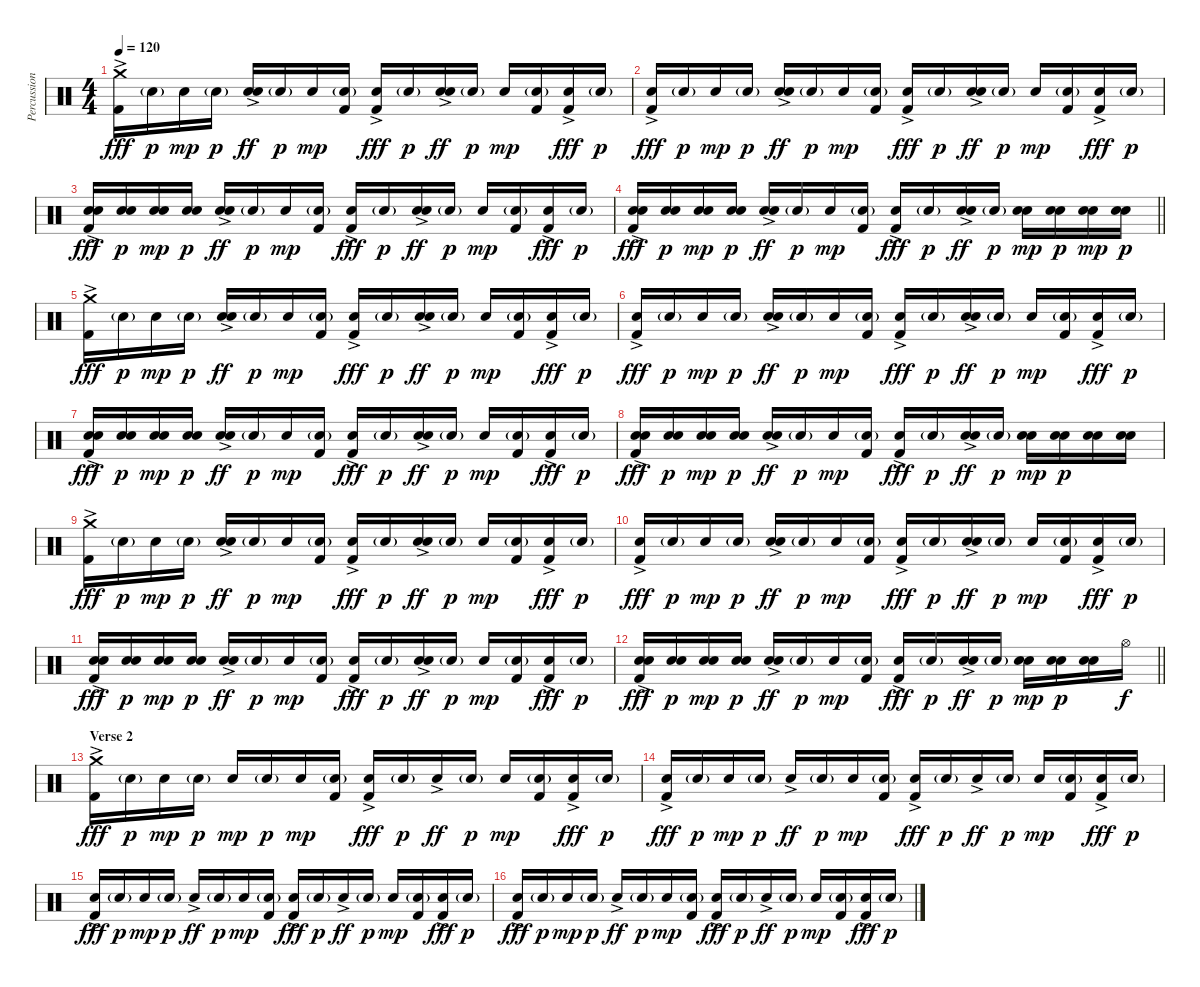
\track ("Percussion" "Percussion") {instrument percussion}
\staff {score}
\articulation defaults
\ts (4 4)
\tempo 120
\clef neutral
\ks c
("Crash medium (hit)" "Kick (hit) 2"{ac}).16{dy fff} "Electric Snare (hit)"{g}.16{dy p} "Electric Snare (hit)".16{dy mp} "Electric Snare (hit)"{g}.16{dy p} ("Electric Snare (hit)"{ac} "Snare (hit) 2").16{dy ff} "Electric Snare (hit)"{g}.16{dy p} "Electric Snare (hit)".16{dy mp} ("Electric Snare (hit)"{g} "Kick (hit) 2").16 ("Electric Snare (hit)" "Kick (hit) 2"{ac}).16{dy fff} "Electric Snare (hit)"{g}.16{dy p} ("Electric Snare (hit)"{ac} "Snare (hit) 2").16{dy ff} "Electric Snare (hit)"{g}.16{dy p} "Electric Snare (hit)".16{dy mp} ("Electric Snare (hit)"{g} "Kick (hit) 2").16 ("Electric Snare (hit)" "Kick (hit) 2"{ac}).16{dy fff} "Electric Snare (hit)"{g}.16{dy p} |
("Electric Snare (hit)" "Kick (hit) 2"{ac}).16{dy fff} "Electric Snare (hit)"{g}.16{dy p} "Electric Snare (hit)".16{dy mp} "Electric Snare (hit)"{g}.16{dy p} ("Electric Snare (hit)"{ac} "Snare (hit) 2").16{dy ff} "Electric Snare (hit)"{g}.16{dy p} "Electric Snare (hit)".16{dy mp} ("Electric Snare (hit)"{g} "Kick (hit) 2").16 ("Electric Snare (hit)" "Kick (hit) 2"{ac}).16{dy fff} "Electric Snare (hit)"{g}.16{dy p} ("Electric Snare (hit)"{ac} "Snare (hit) 2").16{dy ff} "Electric Snare (hit)"{g}.16{dy p} "Electric Snare (hit)".16{dy mp} ("Electric Snare (hit)"{g} "Kick (hit) 2").16 ("Electric Snare (hit)" "Kick (hit) 2"{ac}).16{dy fff} "Electric Snare (hit)"{g}.16{dy p} |
("Electric Snare (hit)" "Snare (hit) 2" "Kick (hit) 2"{ac}).16{dy fff} ("Electric Snare (hit)" "Snare (hit) 2").16{dy p} ("Electric Snare (hit)" "Snare (hit) 2").16{dy mp} ("Electric Snare (hit)" "Snare (hit) 2").16{dy p} ("Electric Snare (hit)"{ac} "Snare (hit) 2").16{dy ff} "Electric Snare (hit)"{g}.16{dy p} "Electric Snare (hit)".16{dy mp} ("Electric Snare (hit)"{g} "Kick (hit) 2").16 ("Electric Snare (hit)" "Kick (hit) 2"{ac}).16{dy fff} "Electric Snare (hit)"{g}.16{dy p} ("Electric Snare (hit)"{ac} "Snare (hit) 2").16{dy ff} "Electric Snare (hit)"{g}.16{dy p} "Electric Snare (hit)".16{dy mp} ("Electric Snare (hit)"{g} "Kick (hit) 2").16 ("Electric Snare (hit)" "Kick (hit) 2"{ac}).16{dy fff} "Electric Snare (hit)"{g}.16{dy p} |
\barLineRight lightlight
("Electric Snare (hit)" "Snare (hit) 2" "Kick (hit) 2"{ac}).16{dy fff} ("Electric Snare (hit)" "Snare (hit) 2").16{dy p} ("Electric Snare (hit)" "Snare (hit) 2").16{dy mp} ("Electric Snare (hit)" "Snare (hit) 2").16{dy p} ("Electric Snare (hit)"{ac} "Snare (hit) 2").16{dy ff} "Electric Snare (hit)"{g}.16{dy p} "Electric Snare (hit)".16{dy mp} ("Electric Snare (hit)"{g} "Kick (hit) 2").16 ("Electric Snare (hit)" "Kick (hit) 2"{ac}).16{dy fff} "Electric Snare (hit)"{g}.16{dy p} ("Electric Snare (hit)"{ac} "Snare (hit) 2").16{dy ff} "Electric Snare (hit)"{g}.16{dy p} ("Electric Snare (hit)" "Snare (hit) 2").16{dy mp} ("Electric Snare (hit)" "Snare (hit) 2").16{dy p} ("Electric Snare (hit)" "Snare (hit) 2").16{dy mp} ("Electric Snare (hit)" "Snare (hit) 2").16{dy p} |
("Crash medium (hit)" "Kick (hit) 2"{ac}).16{dy fff} "Electric Snare (hit)"{g}.16{dy p} "Electric Snare (hit)".16{dy mp} "Electric Snare (hit)"{g}.16{dy p} ("Electric Snare (hit)"{ac} "Snare (hit) 2").16{dy ff} "Electric Snare (hit)"{g}.16{dy p} "Electric Snare (hit)".16{dy mp} ("Electric Snare (hit)"{g} "Kick (hit) 2").16 ("Electric Snare (hit)" "Kick (hit) 2"{ac}).16{dy fff} "Electric Snare (hit)"{g}.16{dy p} ("Electric Snare (hit)"{ac} "Snare (hit) 2").16{dy ff} "Electric Snare (hit)"{g}.16{dy p} "Electric Snare (hit)".16{dy mp} ("Electric Snare (hit)"{g} "Kick (hit) 2").16 ("Electric Snare (hit)" "Kick (hit) 2"{ac}).16{dy fff} "Electric Snare (hit)"{g}.16{dy p} |
("Electric Snare (hit)" "Kick (hit) 2"{ac}).16{dy fff} "Electric Snare (hit)"{g}.16{dy p} "Electric Snare (hit)".16{dy mp} "Electric Snare (hit)"{g}.16{dy p} ("Electric Snare (hit)"{ac} "Snare (hit) 2").16{dy ff} "Electric Snare (hit)"{g}.16{dy p} "Electric Snare (hit)".16{dy mp} ("Electric Snare (hit)"{g} "Kick (hit) 2").16 ("Electric Snare (hit)" "Kick (hit) 2"{ac}).16{dy fff} "Electric Snare (hit)"{g}.16{dy p} ("Electric Snare (hit)"{ac} "Snare (hit) 2").16{dy ff} "Electric Snare (hit)"{g}.16{dy p} "Electric Snare (hit)".16{dy mp} ("Electric Snare (hit)"{g} "Kick (hit) 2").16 ("Electric Snare (hit)" "Kick (hit) 2"{ac}).16{dy fff} "Electric Snare (hit)"{g}.16{dy p} |
("Electric Snare (hit)" "Snare (hit) 2" "Kick (hit) 2"{ac}).16{dy fff} ("Electric Snare (hit)" "Snare (hit) 2").16{dy p} ("Electric Snare (hit)" "Snare (hit) 2").16{dy mp} ("Electric Snare (hit)" "Snare (hit) 2").16{dy p} ("Electric Snare (hit)"{ac} "Snare (hit) 2").16{dy ff} "Electric Snare (hit)"{g}.16{dy p} "Electric Snare (hit)".16{dy mp} ("Electric Snare (hit)"{g} "Kick (hit) 2").16 ("Electric Snare (hit)" "Kick (hit) 2"{ac}).16{dy fff} "Electric Snare (hit)"{g}.16{dy p} ("Electric Snare (hit)"{ac} "Snare (hit) 2").16{dy ff} "Electric Snare (hit)"{g}.16{dy p} "Electric Snare (hit)".16{dy mp} ("Electric Snare (hit)"{g} "Kick (hit) 2").16 ("Electric Snare (hit)" "Kick (hit) 2"{ac}).16{dy fff} "Electric Snare (hit)"{g}.16{dy p} |
("Electric Snare (hit)" "Snare (hit) 2" "Kick (hit) 2"{ac}).16{dy fff} ("Electric Snare (hit)" "Snare (hit) 2").16{dy p} ("Electric Snare (hit)" "Snare (hit) 2").16{dy mp} ("Electric Snare (hit)" "Snare (hit) 2").16{dy p} ("Electric Snare (hit)"{ac} "Snare (hit) 2").16{dy ff} "Electric Snare (hit)"{g}.16{dy p} "Electric Snare (hit)".16{dy mp} ("Electric Snare (hit)"{g} "Kick (hit) 2").16 ("Electric Snare (hit)" "Kick (hit) 2"{ac}).16{dy fff} "Electric Snare (hit)"{g}.16{dy p} ("Electric Snare (hit)"{ac} "Snare (hit) 2").16{dy ff} "Electric Snare (hit)"{g}.16{dy p} ("Electric Snare (hit)" "Snare (hit) 2").16{dy mp} ("Electric Snare (hit)" "Snare (hit) 2").16{dy p} ("Electric Snare (hit)" "Snare (hit) 2").16 ("Electric Snare (hit)" "Snare (hit) 2").16 |
("Crash medium (hit)" "Kick (hit) 2"{ac}).16{dy fff} "Electric Snare (hit)"{g}.16{dy p} "Electric Snare (hit)".16{dy mp} "Electric Snare (hit)"{g}.16{dy p} ("Electric Snare (hit)"{ac} "Snare (hit) 2").16{dy ff} "Electric Snare (hit)"{g}.16{dy p} "Electric Snare (hit)".16{dy mp} ("Electric Snare (hit)"{g} "Kick (hit) 2").16 ("Electric Snare (hit)" "Kick (hit) 2"{ac}).16{dy fff} "Electric Snare (hit)"{g}.16{dy p} ("Electric Snare (hit)"{ac} "Snare (hit) 2").16{dy ff} "Electric Snare (hit)"{g}.16{dy p} "Electric Snare (hit)".16{dy mp} ("Electric Snare (hit)"{g} "Kick (hit) 2").16 ("Electric Snare (hit)" "Kick (hit) 2"{ac}).16{dy fff} "Electric Snare (hit)"{g}.16{dy p} |
("Electric Snare (hit)" "Kick (hit) 2"{ac}).16{dy fff} "Electric Snare (hit)"{g}.16{dy p} "Electric Snare (hit)".16{dy mp} "Electric Snare (hit)"{g}.16{dy p} ("Electric Snare (hit)"{ac} "Snare (hit) 2").16{dy ff} "Electric Snare (hit)"{g}.16{dy p} "Electric Snare (hit)".16{dy mp} ("Electric Snare (hit)"{g} "Kick (hit) 2").16 ("Electric Snare (hit)" "Kick (hit) 2"{ac}).16{dy fff} "Electric Snare (hit)"{g}.16{dy p} ("Electric Snare (hit)"{ac} "Snare (hit) 2").16{dy ff} "Electric Snare (hit)"{g}.16{dy p} "Electric Snare (hit)".16{dy mp} ("Electric Snare (hit)"{g} "Kick (hit) 2").16 ("Electric Snare (hit)" "Kick (hit) 2"{ac}).16{dy fff} "Electric Snare (hit)"{g}.16{dy p} |
("Electric Snare (hit)" "Snare (hit) 2" "Kick (hit) 2"{ac}).16{dy fff} ("Electric Snare (hit)" "Snare (hit) 2").16{dy p} ("Electric Snare (hit)" "Snare (hit) 2").16{dy mp} ("Electric Snare (hit)" "Snare (hit) 2").16{dy p} ("Electric Snare (hit)"{ac} "Snare (hit) 2").16{dy ff} "Electric Snare (hit)"{g}.16{dy p} "Electric Snare (hit)".16{dy mp} ("Electric Snare (hit)"{g} "Kick (hit) 2").16 ("Electric Snare (hit)" "Kick (hit) 2"{ac}).16{dy fff} "Electric Snare (hit)"{g}.16{dy p} ("Electric Snare (hit)"{ac} "Snare (hit) 2").16{dy ff} "Electric Snare (hit)"{g}.16{dy p} "Electric Snare (hit)".16{dy mp} ("Electric Snare (hit)"{g} "Kick (hit) 2").16 ("Electric Snare (hit)" "Kick (hit) 2"{ac}).16{dy fff} "Electric Snare (hit)"{g}.16{dy p} |
\barLineRight lightlight
("Electric Snare (hit)" "Snare (hit) 2" "Kick (hit) 2"{ac}).16{dy fff} ("Electric Snare (hit)" "Snare (hit) 2").16{dy p} ("Electric Snare (hit)" "Snare (hit) 2").16{dy mp} ("Electric Snare (hit)" "Snare (hit) 2").16{dy p} ("Electric Snare (hit)"{ac} "Snare (hit) 2").16{dy ff} "Electric Snare (hit)"{g}.16{dy p} "Electric Snare (hit)".16{dy mp} ("Electric Snare (hit)"{g} "Kick (hit) 2").16 ("Electric Snare (hit)" "Kick (hit) 2"{ac}).16{dy fff} "Electric Snare (hit)"{g}.16{dy p} ("Electric Snare (hit)"{ac} "Snare (hit) 2").16{dy ff} "Electric Snare (hit)"{g}.16{dy p} ("Electric Snare (hit)" "Snare (hit) 2").16{dy mp} ("Electric Snare (hit)" "Snare (hit) 2").16{dy p} ("Electric Snare (hit)" "Snare (hit) 2").16 "Hi-Hat (open)".16{dy f} |
\section ("" "Verse 2")
("Crash medium (hit)" "Kick (hit) 2"{ac}).16{dy fff} "Electric Snare (hit)"{g}.16{dy p} "Electric Snare (hit)".16{dy mp} "Electric Snare (hit)"{g}.16{dy p} "Electric Snare (hit)".16{dy mp} "Electric Snare (hit)"{g}.16{dy p} "Electric Snare (hit)".16{dy mp} ("Electric Snare (hit)"{g} "Kick (hit) 2").16 ("Electric Snare (hit)" "Kick (hit) 2"{ac}).16{dy fff} "Electric Snare (hit)"{g}.16{dy p} "Electric Snare (hit)"{ac}.16{dy ff} "Electric Snare (hit)"{g}.16{dy p} "Electric Snare (hit)".16{dy mp} ("Electric Snare (hit)"{g} "Kick (hit) 2").16 ("Electric Snare (hit)" "Kick (hit) 2"{ac}).16{dy fff} "Electric Snare (hit)"{g}.16{dy p} |
("Electric Snare (hit)" "Kick (hit) 2"{ac}).16{dy fff} "Electric Snare (hit)"{g}.16{dy p} "Electric Snare (hit)".16{dy mp} "Electric Snare (hit)"{g}.16{dy p} "Electric Snare (hit)"{ac}.16{dy ff} "Electric Snare (hit)"{g}.16{dy p} "Electric Snare (hit)".16{dy mp} ("Electric Snare (hit)"{g} "Kick (hit) 2").16 ("Electric Snare (hit)" "Kick (hit) 2"{ac}).16{dy fff} "Electric Snare (hit)"{g}.16{dy p} "Electric Snare (hit)"{ac}.16{dy ff} "Electric Snare (hit)"{g}.16{dy p} "Electric Snare (hit)".16{dy mp} ("Electric Snare (hit)"{g} "Kick (hit) 2").16 ("Electric Snare (hit)" "Kick (hit) 2"{ac}).16{dy fff} "Electric Snare (hit)"{g}.16{dy p} |
("Electric Snare (hit)" "Kick (hit) 2"{ac}).16{dy fff} "Electric Snare (hit)"{g}.16{dy p} "Electric Snare (hit)".16{dy mp} "Electric Snare (hit)"{g}.16{dy p} "Electric Snare (hit)"{ac}.16{dy ff} "Electric Snare (hit)"{g}.16{dy p} "Electric Snare (hit)".16{dy mp} ("Electric Snare (hit)"{g} "Kick (hit) 2").16 ("Electric Snare (hit)" "Kick (hit) 2"{ac}).16{dy fff} "Electric Snare (hit)"{g}.16{dy p} "Electric Snare (hit)"{ac}.16{dy ff} "Electric Snare (hit)"{g}.16{dy p} "Electric Snare (hit)".16{dy mp} ("Electric Snare (hit)"{g} "Kick (hit) 2").16 ("Electric Snare (hit)" "Kick (hit) 2"{ac}).16{dy fff} "Electric Snare (hit)"{g}.16{dy p} |
("Electric Snare (hit)" "Kick (hit) 2"{ac}).16{dy fff} "Electric Snare (hit)"{g}.16{dy p} "Electric Snare (hit)".16{dy mp} "Electric Snare (hit)"{g}.16{dy p} "Electric Snare (hit)"{ac}.16{dy ff} "Electric Snare (hit)"{g}.16{dy p} "Electric Snare (hit)".16{dy mp} ("Electric Snare (hit)"{g} "Kick (hit) 2").16 ("Electric Snare (hit)" "Kick (hit) 2"{ac}).16{dy fff} "Electric Snare (hit)"{g}.16{dy p} "Electric Snare (hit)"{ac}.16{dy ff} "Electric Snare (hit)"{g}.16{dy p} "Electric Snare (hit)".16{dy mp} ("Electric Snare (hit)"{g} "Kick (hit) 2").16 ("Electric Snare (hit)" "Kick (hit) 2"{ac}).16{dy fff} "Electric Snare (hit)"{g}.16{dy p}
